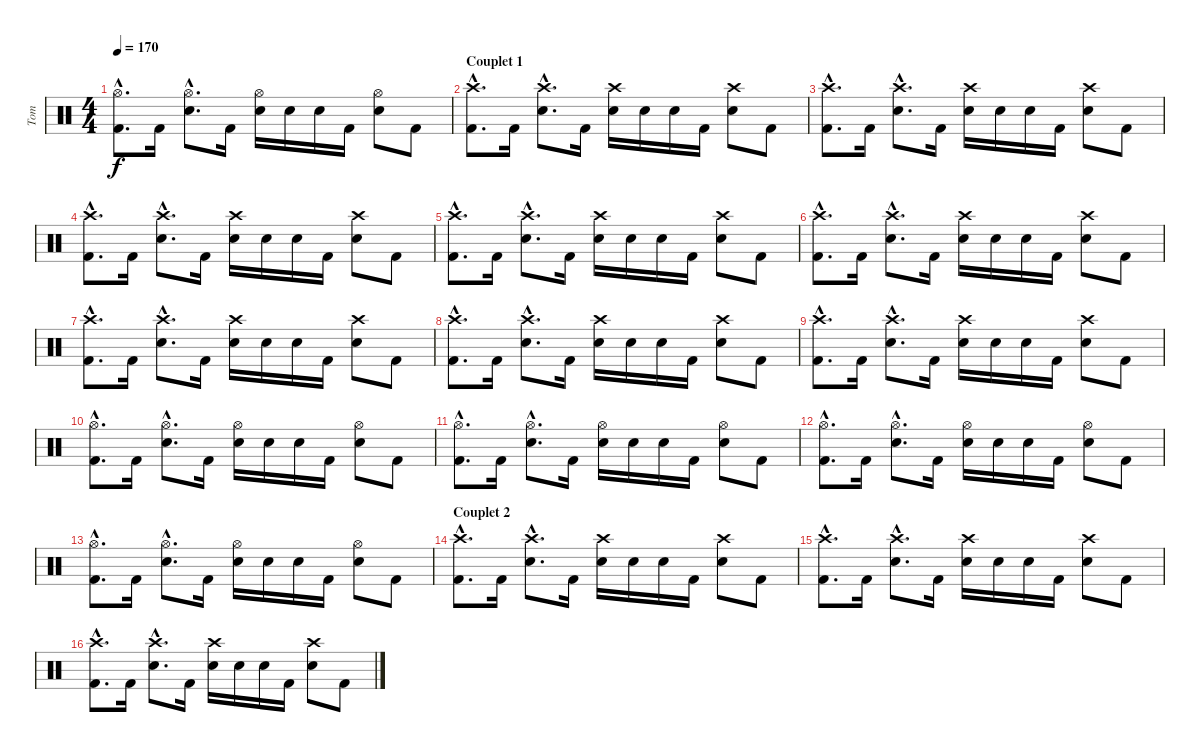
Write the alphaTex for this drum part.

\track ("Tom" "Tom") {instrument percussion}
\staff {score}
\articulation defaults
\ts (4 4)
\tempo 170
\clef neutral
\ks c
("Hi-Hat (open)"{hac} "Kick (hit) 2"{hac}).8{d dy f} "Kick (hit) 2".16 ("Hi-Hat (open)"{hac} "Electric Snare (hit)"{hac}).8{d} "Kick (hit) 2".16 ("Hi-Hat (open)" "Electric Snare (hit)").16 "Electric Snare (hit)".16 "Electric Snare (hit)".16 "Kick (hit) 2".16 ("Hi-Hat (open)" "Electric Snare (hit)").8 "Kick (hit) 2".8 |
\section ("" "Couplet 1")
("Crash high (hit)"{hac} "Kick (hit) 2"{hac}).8{d} "Kick (hit) 2".16 ("Crash high (hit)"{hac} "Electric Snare (hit)"{hac}).8{d} "Kick (hit) 2".16 ("Crash high (hit)" "Electric Snare (hit)").16 "Electric Snare (hit)".16 "Electric Snare (hit)".16 "Kick (hit) 2".16 ("Crash high (hit)" "Electric Snare (hit)").8 "Kick (hit) 2".8 |
("Crash high (hit)"{hac} "Kick (hit) 2"{hac}).8{d} "Kick (hit) 2".16 ("Crash high (hit)"{hac} "Electric Snare (hit)"{hac}).8{d} "Kick (hit) 2".16 ("Crash high (hit)" "Electric Snare (hit)").16 "Electric Snare (hit)".16 "Electric Snare (hit)".16 "Kick (hit) 2".16 ("Crash high (hit)" "Electric Snare (hit)").8 "Kick (hit) 2".8 |
("Crash high (hit)"{hac} "Kick (hit) 2"{hac}).8{d} "Kick (hit) 2".16 ("Crash high (hit)"{hac} "Electric Snare (hit)"{hac}).8{d} "Kick (hit) 2".16 ("Crash high (hit)" "Electric Snare (hit)").16 "Electric Snare (hit)".16 "Electric Snare (hit)".16 "Kick (hit) 2".16 ("Crash high (hit)" "Electric Snare (hit)").8 "Kick (hit) 2".8 |
("Crash high (hit)"{hac} "Kick (hit) 2"{hac}).8{d} "Kick (hit) 2".16 ("Crash high (hit)"{hac} "Electric Snare (hit)"{hac}).8{d} "Kick (hit) 2".16 ("Crash high (hit)" "Electric Snare (hit)").16 "Electric Snare (hit)".16 "Electric Snare (hit)".16 "Kick (hit) 2".16 ("Crash high (hit)" "Electric Snare (hit)").8 "Kick (hit) 2".8 |
("Crash high (hit)"{hac} "Kick (hit) 2"{hac}).8{d} "Kick (hit) 2".16 ("Crash high (hit)"{hac} "Electric Snare (hit)"{hac}).8{d} "Kick (hit) 2".16 ("Crash high (hit)" "Electric Snare (hit)").16 "Electric Snare (hit)".16 "Electric Snare (hit)".16 "Kick (hit) 2".16 ("Crash high (hit)" "Electric Snare (hit)").8 "Kick (hit) 2".8 |
("Crash high (hit)"{hac} "Kick (hit) 2"{hac}).8{d} "Kick (hit) 2".16 ("Crash high (hit)"{hac} "Electric Snare (hit)"{hac}).8{d} "Kick (hit) 2".16 ("Crash high (hit)" "Electric Snare (hit)").16 "Electric Snare (hit)".16 "Electric Snare (hit)".16 "Kick (hit) 2".16 ("Crash high (hit)" "Electric Snare (hit)").8 "Kick (hit) 2".8 |
("Crash high (hit)"{hac} "Kick (hit) 2"{hac}).8{d} "Kick (hit) 2".16 ("Crash high (hit)"{hac} "Electric Snare (hit)"{hac}).8{d} "Kick (hit) 2".16 ("Crash high (hit)" "Electric Snare (hit)").16 "Electric Snare (hit)".16 "Electric Snare (hit)".16 "Kick (hit) 2".16 ("Crash high (hit)" "Electric Snare (hit)").8 "Kick (hit) 2".8 |
("Crash high (hit)"{hac} "Kick (hit) 2"{hac}).8{d} "Kick (hit) 2".16 ("Crash high (hit)"{hac} "Electric Snare (hit)"{hac}).8{d} "Kick (hit) 2".16 ("Crash high (hit)" "Electric Snare (hit)").16 "Electric Snare (hit)".16 "Electric Snare (hit)".16 "Kick (hit) 2".16 ("Crash high (hit)" "Electric Snare (hit)").8 "Kick (hit) 2".8 |
("Hi-Hat (open)"{hac} "Kick (hit) 2"{hac}).8{d} "Kick (hit) 2".16 ("Hi-Hat (open)"{hac} "Electric Snare (hit)"{hac}).8{d} "Kick (hit) 2".16 ("Hi-Hat (open)" "Electric Snare (hit)").16 "Electric Snare (hit)".16 "Electric Snare (hit)".16 "Kick (hit) 2".16 ("Hi-Hat (open)" "Electric Snare (hit)").8 "Kick (hit) 2".8 |
("Hi-Hat (open)"{hac} "Kick (hit) 2"{hac}).8{d} "Kick (hit) 2".16 ("Hi-Hat (open)"{hac} "Electric Snare (hit)"{hac}).8{d} "Kick (hit) 2".16 ("Hi-Hat (open)" "Electric Snare (hit)").16 "Electric Snare (hit)".16 "Electric Snare (hit)".16 "Kick (hit) 2".16 ("Hi-Hat (open)" "Electric Snare (hit)").8 "Kick (hit) 2".8 |
("Hi-Hat (open)"{hac} "Kick (hit) 2"{hac}).8{d} "Kick (hit) 2".16 ("Hi-Hat (open)"{hac} "Electric Snare (hit)"{hac}).8{d} "Kick (hit) 2".16 ("Hi-Hat (open)" "Electric Snare (hit)").16 "Electric Snare (hit)".16 "Electric Snare (hit)".16 "Kick (hit) 2".16 ("Hi-Hat (open)" "Electric Snare (hit)").8 "Kick (hit) 2".8 |
("Hi-Hat (open)"{hac} "Kick (hit) 2"{hac}).8{d} "Kick (hit) 2".16 ("Hi-Hat (open)"{hac} "Electric Snare (hit)"{hac}).8{d} "Kick (hit) 2".16 ("Hi-Hat (open)" "Electric Snare (hit)").16 "Electric Snare (hit)".16 "Electric Snare (hit)".16 "Kick (hit) 2".16 ("Hi-Hat (open)" "Electric Snare (hit)").8 "Kick (hit) 2".8 |
\section ("" "Couplet 2")
("Crash high (hit)"{hac} "Kick (hit) 2"{hac}).8{d} "Kick (hit) 2".16 ("Crash high (hit)"{hac} "Electric Snare (hit)"{hac}).8{d} "Kick (hit) 2".16 ("Crash high (hit)" "Electric Snare (hit)").16 "Electric Snare (hit)".16 "Electric Snare (hit)".16 "Kick (hit) 2".16 ("Crash high (hit)" "Electric Snare (hit)").8 "Kick (hit) 2".8 |
("Crash high (hit)"{hac} "Kick (hit) 2"{hac}).8{d} "Kick (hit) 2".16 ("Crash high (hit)"{hac} "Electric Snare (hit)"{hac}).8{d} "Kick (hit) 2".16 ("Crash high (hit)" "Electric Snare (hit)").16 "Electric Snare (hit)".16 "Electric Snare (hit)".16 "Kick (hit) 2".16 ("Crash high (hit)" "Electric Snare (hit)").8 "Kick (hit) 2".8 |
("Crash high (hit)"{hac} "Kick (hit) 2"{hac}).8{d} "Kick (hit) 2".16 ("Crash high (hit)"{hac} "Electric Snare (hit)"{hac}).8{d} "Kick (hit) 2".16 ("Crash high (hit)" "Electric Snare (hit)").16 "Electric Snare (hit)".16 "Electric Snare (hit)".16 "Kick (hit) 2".16 ("Crash high (hit)" "Electric Snare (hit)").8 "Kick (hit) 2".8
